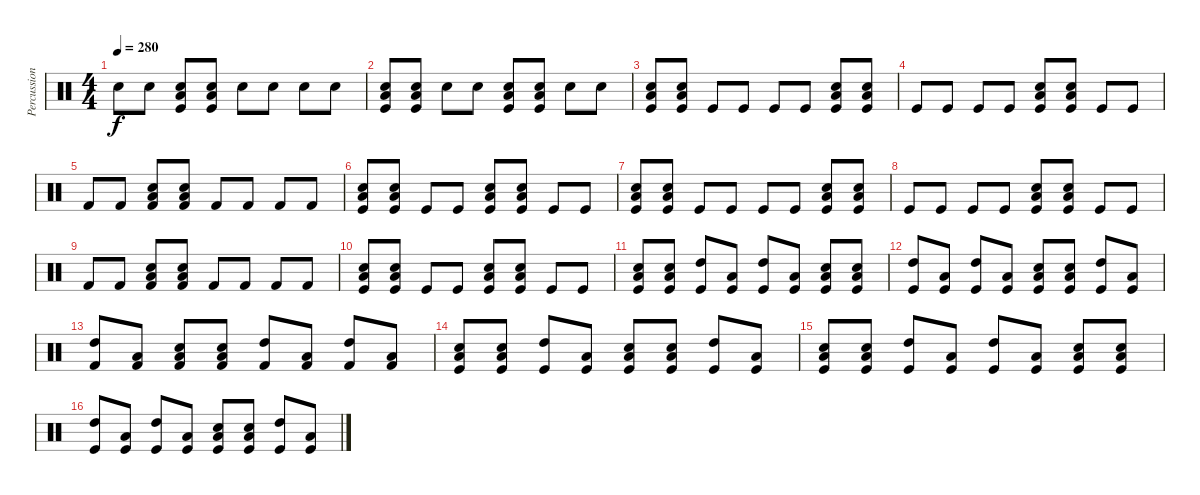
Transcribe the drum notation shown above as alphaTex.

\track ("Percussion" "Percussion") {instrument percussion}
\staff {score}
\articulation defaults
\ts (4 4)
\tempo 280
\clef neutral
\ks c "Electric Snare (hit)".8{dy f} "Electric Snare (hit)".8
("Low Floor Tom (hit)" "Electric Snare (hit)" "Kick (hit)").8 ("Low Floor Tom (hit)" "Electric Snare (hit)" "Kick (hit)").8 "Electric Snare (hit)".8 "Electric Snare (hit)".8 "Electric Snare (hit)".8 "Electric Snare (hit)".8 |
("Low Floor Tom (hit)" "Electric Snare (hit)" "Kick (hit)").8 ("Low Floor Tom (hit)" "Electric Snare (hit)" "Kick (hit)").8 "Electric Snare (hit)".8 "Electric Snare (hit)".8 ("Low Floor Tom (hit)" "Electric Snare (hit)" "Kick (hit)").8 ("Low Floor Tom (hit)" "Electric Snare (hit)" "Kick (hit)").8 "Electric Snare (hit)".8 "Electric Snare (hit)".8 |
("Low Floor Tom (hit)" "Electric Snare (hit)" "Kick (hit)").8 ("Low Floor Tom (hit)" "Electric Snare (hit)" "Kick (hit)").8 "Kick (hit)".8 "Kick (hit)".8 "Kick (hit)".8 "Kick (hit)".8 ("Low Floor Tom (hit)" "Electric Snare (hit)" "Kick (hit)").8 ("Low Floor Tom (hit)" "Electric Snare (hit)" "Kick (hit)").8 |
"Kick (hit)".8 "Kick (hit)".8 "Kick (hit)".8 "Kick (hit)".8 ("Low Floor Tom (hit)" "Electric Snare (hit)" "Kick (hit)").8 ("Low Floor Tom (hit)" "Electric Snare (hit)" "Kick (hit)").8 "Kick (hit)".8 "Kick (hit)".8 |
"Kick (hit) 2".8 "Kick (hit) 2".8 ("Low Floor Tom (hit)" "Electric Snare (hit)" "Kick (hit) 2").8 ("Low Floor Tom (hit)" "Electric Snare (hit)" "Kick (hit) 2").8 "Kick (hit) 2".8 "Kick (hit) 2".8 "Kick (hit) 2".8 "Kick (hit) 2".8 |
("Low Floor Tom (hit)" "Electric Snare (hit)" "Kick (hit)").8 ("Low Floor Tom (hit)" "Electric Snare (hit)" "Kick (hit)").8 "Kick (hit)".8 "Kick (hit)".8 ("Low Floor Tom (hit)" "Electric Snare (hit)" "Kick (hit)").8 ("Low Floor Tom (hit)" "Electric Snare (hit)" "Kick (hit)").8 "Kick (hit)".8 "Kick (hit)".8 |
("Low Floor Tom (hit)" "Electric Snare (hit)" "Kick (hit)").8 ("Low Floor Tom (hit)" "Electric Snare (hit)" "Kick (hit)").8 "Kick (hit)".8 "Kick (hit)".8 "Kick (hit)".8 "Kick (hit)".8 ("Low Floor Tom (hit)" "Electric Snare (hit)" "Kick (hit)").8 ("Low Floor Tom (hit)" "Electric Snare (hit)" "Kick (hit)").8 |
"Kick (hit)".8 "Kick (hit)".8 "Kick (hit)".8 "Kick (hit)".8 ("Low Floor Tom (hit)" "Electric Snare (hit)" "Kick (hit)").8 ("Low Floor Tom (hit)" "Electric Snare (hit)" "Kick (hit)").8 "Kick (hit)".8 "Kick (hit)".8 |
"Kick (hit) 2".8 "Kick (hit) 2".8 ("Low Floor Tom (hit)" "Electric Snare (hit)" "Kick (hit) 2").8 ("Low Floor Tom (hit)" "Electric Snare (hit)" "Kick (hit) 2").8 "Kick (hit) 2".8 "Kick (hit) 2".8 "Kick (hit) 2".8 "Kick (hit) 2".8 |
("Low Floor Tom (hit)" "Electric Snare (hit)" "Kick (hit)").8 ("Low Floor Tom (hit)" "Electric Snare (hit)" "Kick (hit)").8 "Kick (hit)".8 "Kick (hit)".8 ("Low Floor Tom (hit)" "Electric Snare (hit)" "Kick (hit)").8 ("Low Floor Tom (hit)" "Electric Snare (hit)" "Kick (hit)").8 "Kick (hit)".8 "Kick (hit)".8 |
("Low Floor Tom (hit)" "Electric Snare (hit)" "Kick (hit)").8 ("Low Floor Tom (hit)" "Electric Snare (hit)" "Kick (hit)").8 ("High Tom (hit)" "Kick (hit)").8 ("Low Floor Tom (hit)" "Kick (hit)").8 ("High Tom (hit)" "Kick (hit)").8 ("Low Floor Tom (hit)" "Kick (hit)").8 ("Low Floor Tom (hit)" "Electric Snare (hit)" "Kick (hit)").8 ("Low Floor Tom (hit)" "Electric Snare (hit)" "Kick (hit)").8 |
("High Tom (hit)" "Kick (hit)").8 ("Low Floor Tom (hit)" "Kick (hit)").8 ("High Tom (hit)" "Kick (hit)").8 ("Low Floor Tom (hit)" "Kick (hit)").8 ("Low Floor Tom (hit)" "Electric Snare (hit)" "Kick (hit)").8 ("Low Floor Tom (hit)" "Electric Snare (hit)" "Kick (hit)").8 ("High Tom (hit)" "Kick (hit)").8 ("Low Floor Tom (hit)" "Kick (hit)").8 |
("High Tom (hit)" "Kick (hit) 2").8 ("Low Floor Tom (hit)" "Kick (hit) 2").8 ("Low Floor Tom (hit)" "Electric Snare (hit)" "Kick (hit) 2").8 ("Low Floor Tom (hit)" "Electric Snare (hit)" "Kick (hit) 2").8 ("High Tom (hit)" "Kick (hit) 2").8 ("Low Floor Tom (hit)" "Kick (hit) 2").8 ("High Tom (hit)" "Kick (hit) 2").8 ("Low Floor Tom (hit)" "Kick (hit) 2").8 |
("Low Floor Tom (hit)" "Electric Snare (hit)" "Kick (hit)").8 ("Low Floor Tom (hit)" "Electric Snare (hit)" "Kick (hit)").8 ("High Tom (hit)" "Kick (hit)").8 ("Low Floor Tom (hit)" "Kick (hit)").8 ("Low Floor Tom (hit)" "Electric Snare (hit)" "Kick (hit)").8 ("Low Floor Tom (hit)" "Electric Snare (hit)" "Kick (hit)").8 ("High Tom (hit)" "Kick (hit)").8 ("Low Floor Tom (hit)" "Kick (hit)").8 |
("Low Floor Tom (hit)" "Electric Snare (hit)" "Kick (hit)").8 ("Low Floor Tom (hit)" "Electric Snare (hit)" "Kick (hit)").8 ("High Tom (hit)" "Kick (hit)").8 ("Low Floor Tom (hit)" "Kick (hit)").8 ("High Tom (hit)" "Kick (hit)").8 ("Low Floor Tom (hit)" "Kick (hit)").8 ("Low Floor Tom (hit)" "Electric Snare (hit)" "Kick (hit)").8 ("Low Floor Tom (hit)" "Electric Snare (hit)" "Kick (hit)").8 |
("High Tom (hit)" "Kick (hit)").8 ("Low Floor Tom (hit)" "Kick (hit)").8 ("High Tom (hit)" "Kick (hit)").8 ("Low Floor Tom (hit)" "Kick (hit)").8 ("Low Floor Tom (hit)" "Electric Snare (hit)" "Kick (hit)").8 ("Low Floor Tom (hit)" "Electric Snare (hit)" "Kick (hit)").8 ("High Tom (hit)" "Kick (hit)").8 ("Low Floor Tom (hit)" "Kick (hit)").8
